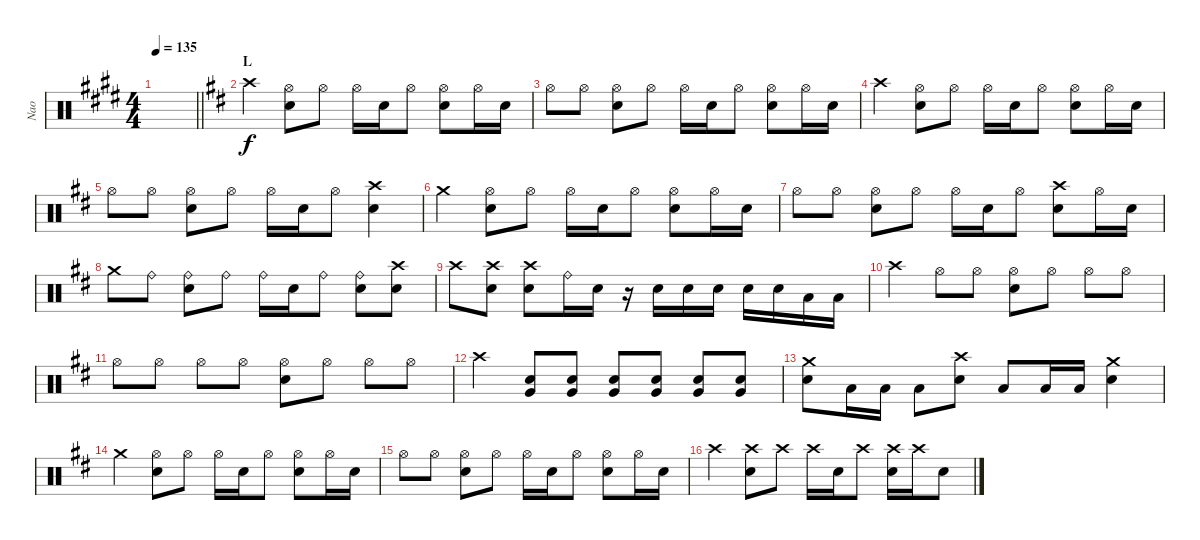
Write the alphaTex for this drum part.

\track ("Nao" "Nao") {instrument percussion}
\staff {score}
\articulation defaults
\ts (4 4)
\tempo 135
\clef neutral
\barLineRight lightlight
\ks e
|
\section ("" "L")
\ks d "Crash high (hit)".4
("Hi-Hat (open)" "Snare (hit) 2").8 "Hi-Hat (open)".8 "Hi-Hat (open)".16 "Snare (hit) 2".16 "Hi-Hat (open)".8 ("Hi-Hat (open)" "Snare (hit) 2").8 "Hi-Hat (open)".16 "Snare (hit) 2".16 |
"Hi-Hat (open)".8 "Hi-Hat (open)".8 ("Hi-Hat (open)" "Snare (hit) 2").8 "Hi-Hat (open)".8 "Hi-Hat (open)".16 "Snare (hit) 2".16 "Hi-Hat (open)".8 ("Hi-Hat (open)" "Snare (hit) 2").8 "Hi-Hat (open)".16 "Snare (hit) 2".16 |
"Crash high (hit)".4 ("Hi-Hat (open)" "Snare (hit) 2").8 "Hi-Hat (open)".8 "Hi-Hat (open)".16 "Snare (hit) 2".16 "Hi-Hat (open)".8 ("Hi-Hat (open)" "Snare (hit) 2").8 "Hi-Hat (open)".16 "Snare (hit) 2".16 |
"Hi-Hat (open)".8 "Hi-Hat (open)".8 ("Hi-Hat (open)" "Snare (hit) 2").8 "Hi-Hat (open)".8 "Hi-Hat (open)".16 "Snare (hit) 2".16 "Hi-Hat (open)".8 ("Crash high (hit)" "Snare (hit) 2").4 |
"Crash medium (hit)".4 ("Hi-Hat (open)" "Snare (hit) 2").8 "Hi-Hat (open)".8 "Hi-Hat (open)".16 "Snare (hit) 2".16 "Hi-Hat (open)".8 ("Hi-Hat (open)" "Snare (hit) 2").8 "Hi-Hat (open)".16 "Snare (hit) 2".16 |
"Hi-Hat (open)".8 "Hi-Hat (open)".8 ("Hi-Hat (open)" "Snare (hit) 2").8 "Hi-Hat (open)".8 "Hi-Hat (open)".16 "Snare (hit) 2".16 "Hi-Hat (open)".8 ("Crash high (hit)" "Snare (hit) 2").8 "Hi-Hat (open)".16 "Snare (hit) 2".16 |
"Crash medium (hit)".8 "Ride (bell)".8 ("Ride (bell)" "Snare (hit) 2").8 "Ride (bell)".8 "Ride (bell)".16 "Snare (hit) 2".16 "Ride (bell)".8 ("Ride (bell)" "Snare (hit) 2").8 ("Crash high (hit)" "Snare (hit) 2").8 |
"Crash high (hit)".8 ("Crash high (hit)" "Snare (hit) 2").8 ("Crash high (hit)" "Snare (hit) 2").8 "Ride (bell)".16 "Snare (hit) 2".16 r.16 "Snare (hit) 2".16 "Snare (hit) 2".16 "Snare (hit) 2".16 "Snare (hit) 2".16 "Snare (hit) 2".16 "Low Tom (hit)".16 "Low Tom (hit)".16 |
"Crash high (hit)".4 "Hi-Hat (open)".8 "Hi-Hat (open)".8 ("Hi-Hat (open)" "Snare (hit) 2").8 "Hi-Hat (open)".8 "Hi-Hat (open)".8 "Hi-Hat (open)".8 |
"Hi-Hat (open)".8 "Hi-Hat (open)".8 "Hi-Hat (open)".8 "Hi-Hat (open)".8 ("Hi-Hat (open)" "Snare (hit) 2").8 "Hi-Hat (open)".8 "Hi-Hat (open)".8 "Hi-Hat (open)".8 |
"Crash high (hit)".4 ("Snare (hit) 2" "Very Low Tom (hit)").8 ("Snare (hit) 2" "Very Low Tom (hit)").8 ("Snare (hit) 2" "Very Low Tom (hit)").8 ("Snare (hit) 2" "Very Low Tom (hit)").8 ("Snare (hit) 2" "Very Low Tom (hit)").8 ("Snare (hit) 2" "Very Low Tom (hit)").8 |
("Crash medium (hit)" "Snare (hit) 2").8 "Low Tom (hit)".16 "Low Tom (hit)".16 "Low Tom (hit)".8 ("Crash high (hit)" "Snare (hit) 2").8 "Low Tom (hit)".8 "Low Tom (hit)".16 "Low Tom (hit)".16 ("Crash medium (hit)" "Snare (hit) 2").4 |
"Crash medium (hit)".4 ("Hi-Hat (open)" "Snare (hit) 2").8 "Hi-Hat (open)".8 "Hi-Hat (open)".16 "Snare (hit) 2".16 "Hi-Hat (open)".8 ("Hi-Hat (open)" "Snare (hit) 2").8 "Hi-Hat (open)".16 "Snare (hit) 2".16 |
"Hi-Hat (open)".8 "Hi-Hat (open)".8 ("Hi-Hat (open)" "Snare (hit) 2").8 "Hi-Hat (open)".8 "Hi-Hat (open)".16 "Snare (hit) 2".16 "Hi-Hat (open)".8 ("Hi-Hat (open)" "Snare (hit) 2").8 "Hi-Hat (open)".16 "Snare (hit) 2".16 |
"Crash high (hit)".4 ("Crash high (hit)" "Snare (hit) 2").8 "Crash high (hit)".8 "Crash high (hit)".16 "Snare (hit) 2".16 "Crash high (hit)".8 ("Crash high (hit)" "Snare (hit) 2").16 "Crash high (hit)".16 "Snare (hit) 2".8
